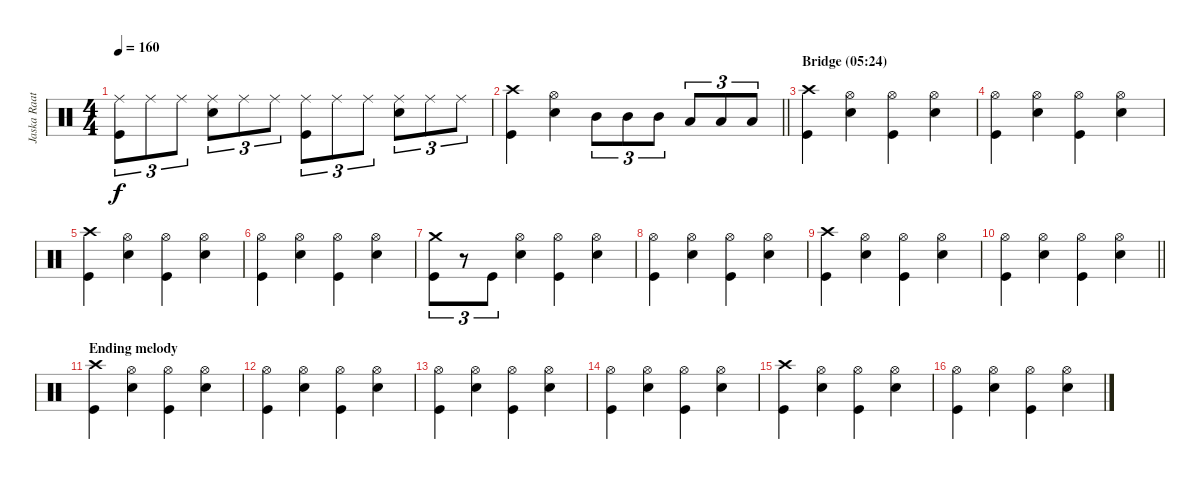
\track ("Jaska Raatikainen" "Jaska Raat") {instrument percussion}
\staff {score}
\articulation defaults
\ts (4 4)
\tempo 160
\clef neutral
\ks c
("Ride (middle)" "Kick (hit)").8{tu (3 2) dy f} "Ride (middle)".8{tu (3 2)} "Ride (middle)".8{tu (3 2)} ("Ride (middle)" "Electric Snare (hit)").8{tu (3 2)} "Ride (middle)".8{tu (3 2)} "Ride (middle)".8{tu (3 2)} ("Ride (middle)" "Kick (hit)").8{tu (3 2)} "Ride (middle)".8{tu (3 2)} "Ride (middle)".8{tu (3 2)} ("Ride (middle)" "Electric Snare (hit)").8{tu (3 2)} "Ride (middle)".8{tu (3 2)} "Ride (middle)".8{tu (3 2)} |
\barLineRight lightlight
("Crash high (hit)" "Kick (hit)").4 ("Hi-Hat (open)" "Electric Snare (hit)").4 "Mid Tom (hit)".8{tu (3 2)} "Mid Tom (hit)".8{tu (3 2)} "Mid Tom (hit)".8{tu (3 2)} "Low Tom (hit)".8{tu (3 2)} "Low Tom (hit)".8{tu (3 2)} "Low Tom (hit)".8{tu (3 2)} |
\section ("" "Bridge (05:24)")
("Crash high (hit)" "Kick (hit)").4 ("Hi-Hat (open)" "Electric Snare (hit)").4 ("Hi-Hat (open)" "Kick (hit)").4 ("Hi-Hat (open)" "Electric Snare (hit)").4 |
("Hi-Hat (open)" "Kick (hit)").4 ("Hi-Hat (open)" "Electric Snare (hit)").4 ("Hi-Hat (open)" "Kick (hit)").4 ("Hi-Hat (open)" "Electric Snare (hit)").4 |
("Crash high (hit)" "Kick (hit)").4 ("Hi-Hat (open)" "Electric Snare (hit)").4 ("Hi-Hat (open)" "Kick (hit)").4 ("Hi-Hat (open)" "Electric Snare (hit)").4 |
("Hi-Hat (open)" "Kick (hit)").4 ("Hi-Hat (open)" "Electric Snare (hit)").4 ("Hi-Hat (open)" "Kick (hit)").4 ("Hi-Hat (open)" "Electric Snare (hit)").4 |
("Crash medium (hit)" "Kick (hit)").8{tu (3 2)} r.8{tu (3 2)} "Kick (hit)".8{tu (3 2)} ("Hi-Hat (open)" "Electric Snare (hit)").4 ("Hi-Hat (open)" "Kick (hit)").4 ("Hi-Hat (open)" "Electric Snare (hit)").4 |
("Hi-Hat (open)" "Kick (hit)").4 ("Hi-Hat (open)" "Electric Snare (hit)").4 ("Hi-Hat (open)" "Kick (hit)").4 ("Hi-Hat (open)" "Electric Snare (hit)").4 |
("Crash high (hit)" "Kick (hit)").4 ("Hi-Hat (open)" "Electric Snare (hit)").4 ("Hi-Hat (open)" "Kick (hit)").4 ("Hi-Hat (open)" "Electric Snare (hit)").4 |
\barLineRight lightlight
("Hi-Hat (open)" "Kick (hit)").4 ("Hi-Hat (open)" "Electric Snare (hit)").4 ("Hi-Hat (open)" "Kick (hit)").4 ("Hi-Hat (open)" "Electric Snare (hit)").4 |
\section ("" "Ending melody")
("Crash high (hit)" "Kick (hit)").4 ("Hi-Hat (open)" "Electric Snare (hit)").4 ("Hi-Hat (open)" "Kick (hit)").4 ("Hi-Hat (open)" "Electric Snare (hit)").4 |
("Hi-Hat (open)" "Kick (hit)").4 ("Hi-Hat (open)" "Electric Snare (hit)").4 ("Hi-Hat (open)" "Kick (hit)").4 ("Hi-Hat (open)" "Electric Snare (hit)").4 |
("Hi-Hat (open)" "Kick (hit)").4 ("Hi-Hat (open)" "Electric Snare (hit)").4 ("Hi-Hat (open)" "Kick (hit)").4 ("Hi-Hat (open)" "Electric Snare (hit)").4 |
("Hi-Hat (open)" "Kick (hit)").4 ("Hi-Hat (open)" "Electric Snare (hit)").4 ("Hi-Hat (open)" "Kick (hit)").4 ("Hi-Hat (open)" "Electric Snare (hit)").4 |
("Crash high (hit)" "Kick (hit)").4 ("Hi-Hat (open)" "Electric Snare (hit)").4 ("Hi-Hat (open)" "Kick (hit)").4 ("Hi-Hat (open)" "Electric Snare (hit)").4 |
("Hi-Hat (open)" "Kick (hit)").4 ("Hi-Hat (open)" "Electric Snare (hit)").4 ("Hi-Hat (open)" "Kick (hit)").4 ("Hi-Hat (open)" "Electric Snare (hit)").4
